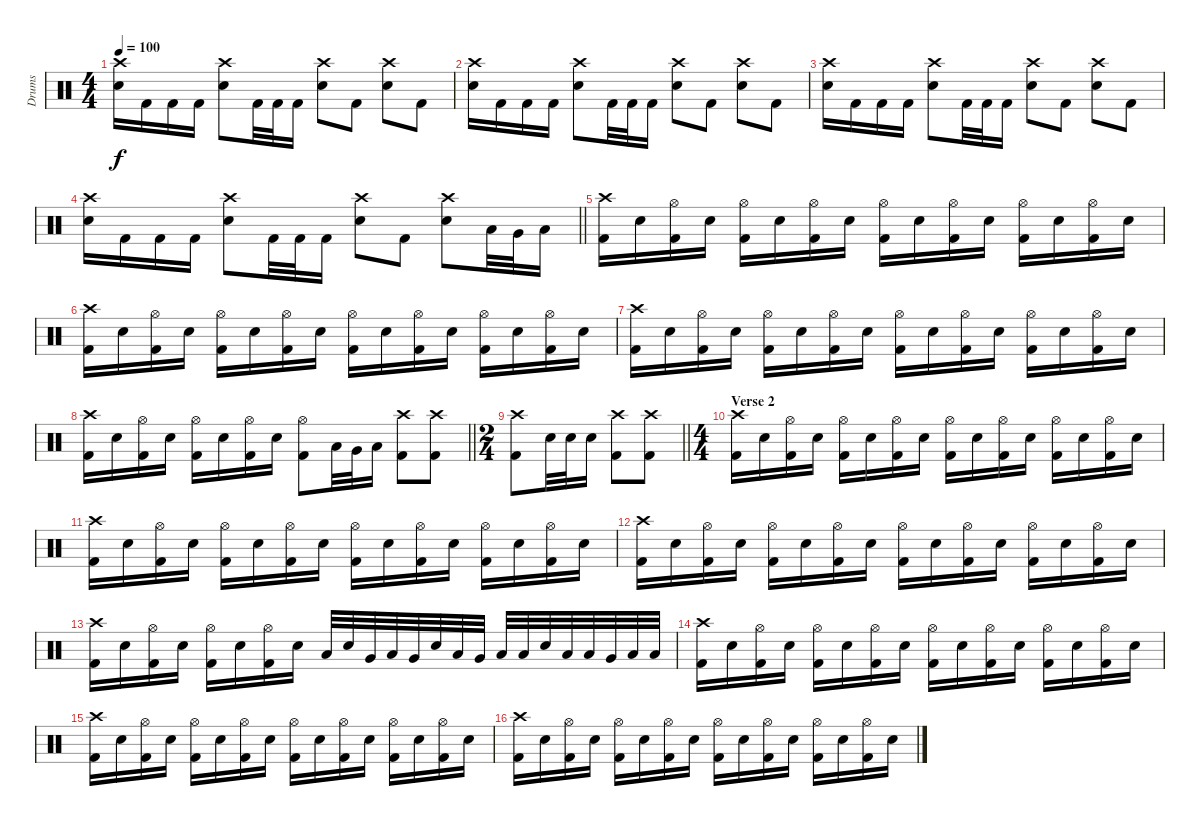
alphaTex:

\track ("Drums" "Drums") {instrument percussion}
\staff {score}
\articulation defaults
\ts (4 4)
\tempo 100
\clef neutral
\ks c
("Crash high (hit)" "Snare (hit) 2").16{dy f} "Kick (hit) 2".16 "Kick (hit) 2".16 "Kick (hit) 2".16 ("Crash high (hit)" "Snare (hit) 2").8 "Kick (hit) 2".32 "Kick (hit) 2".32 "Kick (hit) 2".16 ("Crash high (hit)" "Snare (hit) 2").8 "Kick (hit) 2".8 ("Crash high (hit)" "Snare (hit) 2").8 "Kick (hit) 2".8 |
("Crash high (hit)" "Snare (hit) 2").16 "Kick (hit) 2".16 "Kick (hit) 2".16 "Kick (hit) 2".16 ("Crash high (hit)" "Snare (hit) 2").8 "Kick (hit) 2".32 "Kick (hit) 2".32 "Kick (hit) 2".16 ("Crash high (hit)" "Snare (hit) 2").8 "Kick (hit) 2".8 ("Crash high (hit)" "Snare (hit) 2").8 "Kick (hit) 2".8 |
("Crash high (hit)" "Snare (hit) 2").16 "Kick (hit) 2".16 "Kick (hit) 2".16 "Kick (hit) 2".16 ("Crash high (hit)" "Snare (hit) 2").8 "Kick (hit) 2".32 "Kick (hit) 2".32 "Kick (hit) 2".16 ("Crash high (hit)" "Snare (hit) 2").8 "Kick (hit) 2".8 ("Crash high (hit)" "Snare (hit) 2").8 "Kick (hit) 2".8 |
\barLineRight lightlight
("Crash high (hit)" "Snare (hit) 2").16 "Kick (hit) 2".16 "Kick (hit) 2".16 "Kick (hit) 2".16 ("Crash high (hit)" "Snare (hit) 2").8 "Kick (hit) 2".32 "Kick (hit) 2".32 "Kick (hit) 2".16 ("Crash high (hit)" "Snare (hit) 2").8 "Kick (hit) 2".8 ("Crash high (hit)" "Snare (hit) 2").8 "Low Tom (hit)".32 "Very Low Tom (hit)".32 "Low Floor Tom (hit)".16 |
("Crash high (hit)" "Kick (hit) 2").16 "Snare (hit) 2".16 ("Hi-Hat (open)" "Kick (hit) 2").16 "Snare (hit) 2".16 ("Hi-Hat (open)" "Kick (hit) 2").16 "Snare (hit) 2".16 ("Hi-Hat (open)" "Kick (hit) 2").16 "Snare (hit) 2".16 ("Hi-Hat (open)" "Kick (hit) 2").16 "Snare (hit) 2".16 ("Hi-Hat (open)" "Kick (hit) 2").16 "Snare (hit) 2".16 ("Hi-Hat (open)" "Kick (hit) 2").16 "Snare (hit) 2".16 ("Hi-Hat (open)" "Kick (hit) 2").16 "Snare (hit) 2".16 |
("Crash high (hit)" "Kick (hit) 2").16 "Snare (hit) 2".16 ("Hi-Hat (open)" "Kick (hit) 2").16 "Snare (hit) 2".16 ("Hi-Hat (open)" "Kick (hit) 2").16 "Snare (hit) 2".16 ("Hi-Hat (open)" "Kick (hit) 2").16 "Snare (hit) 2".16 ("Hi-Hat (open)" "Kick (hit) 2").16 "Snare (hit) 2".16 ("Hi-Hat (open)" "Kick (hit) 2").16 "Snare (hit) 2".16 ("Hi-Hat (open)" "Kick (hit) 2").16 "Snare (hit) 2".16 ("Hi-Hat (open)" "Kick (hit) 2").16 "Snare (hit) 2".16 |
("Crash high (hit)" "Kick (hit) 2").16 "Snare (hit) 2".16 ("Hi-Hat (open)" "Kick (hit) 2").16 "Snare (hit) 2".16 ("Hi-Hat (open)" "Kick (hit) 2").16 "Snare (hit) 2".16 ("Hi-Hat (open)" "Kick (hit) 2").16 "Snare (hit) 2".16 ("Hi-Hat (open)" "Kick (hit) 2").16 "Snare (hit) 2".16 ("Hi-Hat (open)" "Kick (hit) 2").16 "Snare (hit) 2".16 ("Hi-Hat (open)" "Kick (hit) 2").16 "Snare (hit) 2".16 ("Hi-Hat (open)" "Kick (hit) 2").16 "Snare (hit) 2".16 |
\barLineRight lightlight
("Crash high (hit)" "Kick (hit) 2").16 "Snare (hit) 2".16 ("Hi-Hat (open)" "Kick (hit) 2").16 "Snare (hit) 2".16 ("Hi-Hat (open)" "Kick (hit) 2").16 "Snare (hit) 2".16 ("Hi-Hat (open)" "Kick (hit) 2").16 "Snare (hit) 2".16 ("Hi-Hat (open)" "Kick (hit) 2").8 "Low Tom (hit)".32 "Very Low Tom (hit)".32 "Low Floor Tom (hit)".16 ("Crash high (hit)" "Kick (hit) 2").8 ("Crash high (hit)" "Kick (hit) 2").8 |
\ts (2 4)
\barLineRight lightlight
("Crash high (hit)" "Kick (hit) 2").8 "Snare (hit) 2".32 "Snare (hit) 2".32 "Snare (hit) 2".16 ("Crash high (hit)" "Kick (hit) 2").8 ("Crash high (hit)" "Kick (hit) 2").8 |
\ts (4 4)
\section ("" "Verse 2")
("Crash high (hit)" "Kick (hit) 2").16 "Snare (hit) 2".16 ("Hi-Hat (open)" "Kick (hit) 2").16 "Snare (hit) 2".16 ("Hi-Hat (open)" "Kick (hit) 2").16 "Snare (hit) 2".16 ("Hi-Hat (open)" "Kick (hit) 2").16 "Snare (hit) 2".16 ("Hi-Hat (open)" "Kick (hit) 2").16 "Snare (hit) 2".16 ("Hi-Hat (open)" "Kick (hit) 2").16 "Snare (hit) 2".16 ("Hi-Hat (open)" "Kick (hit) 2").16 "Snare (hit) 2".16 ("Hi-Hat (open)" "Kick (hit) 2").16 "Snare (hit) 2".16 |
("Crash high (hit)" "Kick (hit) 2").16 "Snare (hit) 2".16 ("Hi-Hat (open)" "Kick (hit) 2").16 "Snare (hit) 2".16 ("Hi-Hat (open)" "Kick (hit) 2").16 "Snare (hit) 2".16 ("Hi-Hat (open)" "Kick (hit) 2").16 "Snare (hit) 2".16 ("Hi-Hat (open)" "Kick (hit) 2").16 "Snare (hit) 2".16 ("Hi-Hat (open)" "Kick (hit) 2").16 "Snare (hit) 2".16 ("Hi-Hat (open)" "Kick (hit) 2").16 "Snare (hit) 2".16 ("Hi-Hat (open)" "Kick (hit) 2").16 "Snare (hit) 2".16 |
("Crash high (hit)" "Kick (hit) 2").16 "Snare (hit) 2".16 ("Hi-Hat (open)" "Kick (hit) 2").16 "Snare (hit) 2".16 ("Hi-Hat (open)" "Kick (hit) 2").16 "Snare (hit) 2".16 ("Hi-Hat (open)" "Kick (hit) 2").16 "Snare (hit) 2".16 ("Hi-Hat (open)" "Kick (hit) 2").16 "Snare (hit) 2".16 ("Hi-Hat (open)" "Kick (hit) 2").16 "Snare (hit) 2".16 ("Hi-Hat (open)" "Kick (hit) 2").16 "Snare (hit) 2".16 ("Hi-Hat (open)" "Kick (hit) 2").16 "Snare (hit) 2".16 |
("Crash high (hit)" "Kick (hit) 2").16 "Snare (hit) 2".16 ("Hi-Hat (open)" "Kick (hit) 2").16 "Snare (hit) 2".16 ("Hi-Hat (open)" "Kick (hit) 2").16 "Snare (hit) 2".16 ("Hi-Hat (open)" "Kick (hit) 2").16 "Snare (hit) 2".16 "Low Tom (hit)".32 "Snare (hit) 2".32 "Very Low Tom (hit)".32 "Low Tom (hit)".32 "Very Low Tom (hit)".32 "Snare (hit) 2".32 "Low Tom (hit)".32 "Very Low Tom (hit)".32 "Low Floor Tom (hit)".32 "Low Floor Tom (hit)".32 "Snare (hit) 2".32 "Low Tom (hit)".32 "Low Tom (hit)".32 "Very Low Tom (hit)".32 "Low Floor Tom (hit)".32 "Low Floor Tom (hit)".32 |
("Crash high (hit)" "Kick (hit) 2").16 "Snare (hit) 2".16 ("Hi-Hat (open)" "Kick (hit) 2").16 "Snare (hit) 2".16 ("Hi-Hat (open)" "Kick (hit) 2").16 "Snare (hit) 2".16 ("Hi-Hat (open)" "Kick (hit) 2").16 "Snare (hit) 2".16 ("Hi-Hat (open)" "Kick (hit) 2").16 "Snare (hit) 2".16 ("Hi-Hat (open)" "Kick (hit) 2").16 "Snare (hit) 2".16 ("Hi-Hat (open)" "Kick (hit) 2").16 "Snare (hit) 2".16 ("Hi-Hat (open)" "Kick (hit) 2").16 "Snare (hit) 2".16 |
("Crash high (hit)" "Kick (hit) 2").16 "Snare (hit) 2".16 ("Hi-Hat (open)" "Kick (hit) 2").16 "Snare (hit) 2".16 ("Hi-Hat (open)" "Kick (hit) 2").16 "Snare (hit) 2".16 ("Hi-Hat (open)" "Kick (hit) 2").16 "Snare (hit) 2".16 ("Hi-Hat (open)" "Kick (hit) 2").16 "Snare (hit) 2".16 ("Hi-Hat (open)" "Kick (hit) 2").16 "Snare (hit) 2".16 ("Hi-Hat (open)" "Kick (hit) 2").16 "Snare (hit) 2".16 ("Hi-Hat (open)" "Kick (hit) 2").16 "Snare (hit) 2".16 |
("Crash high (hit)" "Kick (hit) 2").16 "Snare (hit) 2".16 ("Hi-Hat (open)" "Kick (hit) 2").16 "Snare (hit) 2".16 ("Hi-Hat (open)" "Kick (hit) 2").16 "Snare (hit) 2".16 ("Hi-Hat (open)" "Kick (hit) 2").16 "Snare (hit) 2".16 ("Hi-Hat (open)" "Kick (hit) 2").16 "Snare (hit) 2".16 ("Hi-Hat (open)" "Kick (hit) 2").16 "Snare (hit) 2".16 ("Hi-Hat (open)" "Kick (hit) 2").16 "Snare (hit) 2".16 ("Hi-Hat (open)" "Kick (hit) 2").16 "Snare (hit) 2".16
